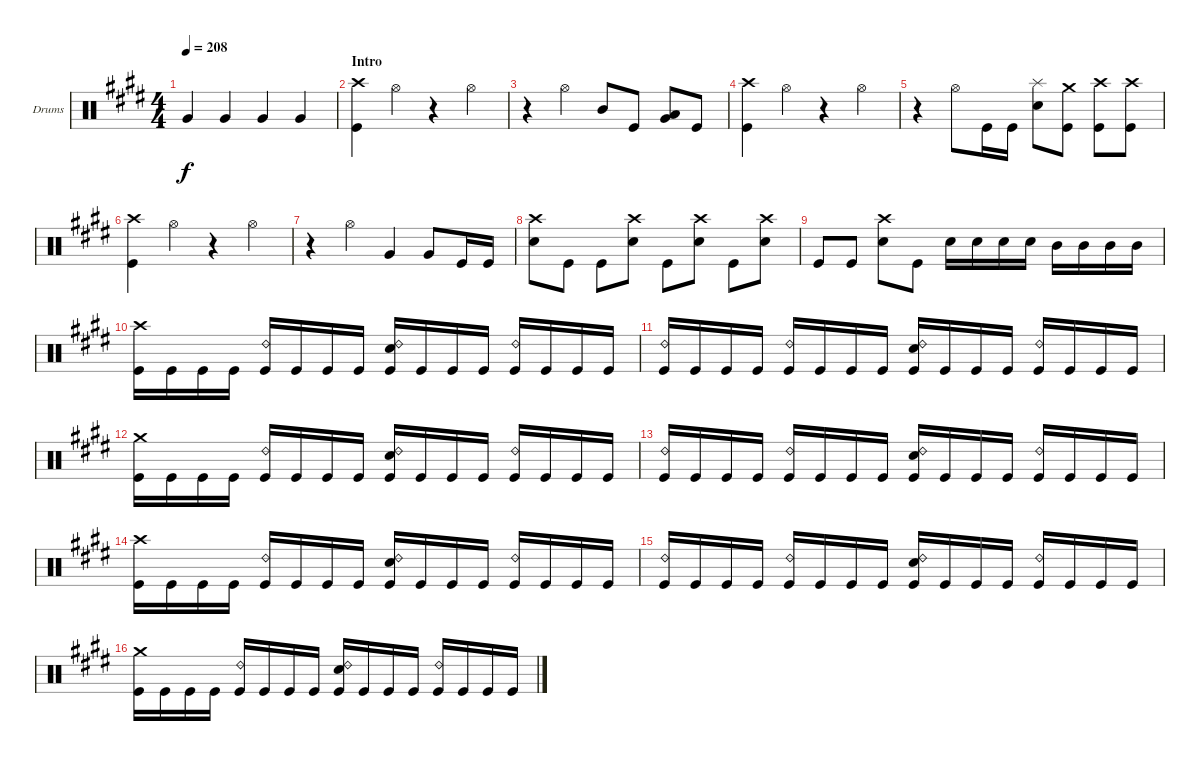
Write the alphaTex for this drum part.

\defaultSystemsLayout 4
\bracketExtendMode groupsimilarinstruments
\firstSystemTrackNameOrientation horizontal
\otherSystemsTrackNameOrientation horizontal
\track ("Corey Friedlander - Drums" "Drums") {instrument percussion}
\staff {score}
\articulation defaults
\ts (4 4)
\tempo 208
\clef neutral
\scale
0.472222
\ks c#minor "Very Low Tom (hit)".4{dy f} "Very Low Tom (hit)".4 "Very Low Tom (hit)".4 "Very Low Tom (hit)".4
|
\section ("" "Intro")
\scale
0.263889 ("Kick (hit)" "Crash high (hit)").4 "Hi-Hat (open)".4 r.4 "Hi-Hat (open)".4 |
\scale
0.263889 r.4 "Hi-Hat (open)".4 "Mid Tom (hit)".8 "Kick (hit)".8 ("Very Low Tom (hit)" "Low Tom (hit)").8 "Kick (hit)".8 |
("Kick (hit)" "Crash high (hit)").4 "Hi-Hat (open)".4 r.4 "Hi-Hat (open)".4 |
r.4 "Hi-Hat (open)".8 "Kick (hit)".16 "Kick (hit)".16 ("Snare (hit) 2" "Splash (hit)").8 ("Kick (hit)" "Crash medium (hit)").8 ("Kick (hit)" "Crash high (hit)").8 ("Kick (hit)" "Crash high (hit)").8 |
("Kick (hit)" "Crash high (hit)").4 "Hi-Hat (open)".4 r.4 "Hi-Hat (open)".4 |
r.4 "Hi-Hat (open)".4 "Very Low Tom (hit)".4 "Very Low Tom (hit)".8 "Kick (hit)".16 "Kick (hit)".16 |
("Snare (hit) 2" "Crash high (hit)").8 "Kick (hit)".8 "Kick (hit)".8 ("Snare (hit) 2" "Crash high (hit)").8 "Kick (hit)".8 ("Snare (hit) 2" "Crash high (hit)").8 "Kick (hit)".8 ("Snare (hit) 2" "Crash high (hit)").8 |
"Kick (hit)".8 "Kick (hit)".8 ("Snare (hit) 2" "Crash high (hit)").8 "Kick (hit)".8 "Snare (hit) 2".16 "Snare (hit) 2".16 "Snare (hit) 2".16 "Snare (hit) 2".16 "Mid Tom (hit)".16 "Mid Tom (hit)".16 "Mid Tom (hit)".16 "Mid Tom (hit)".16 |
("Kick (hit)" "Crash high (hit)").16 "Kick (hit)".16 "Kick (hit)".16 "Kick (hit)".16 ("Kick (hit)" "Ride (bell) 2").16 "Kick (hit)".16 "Kick (hit)".16 "Kick (hit)".16 ("Kick (hit)" "Ride (bell) 2" "Snare (hit) 2").16 "Kick (hit)".16 "Kick (hit)".16 "Kick (hit)".16 ("Kick (hit)" "Ride (bell) 2").16 "Kick (hit)".16 "Kick (hit)".16 "Kick (hit)".16 |
("Kick (hit)" "Ride (bell) 2").16 "Kick (hit)".16 "Kick (hit)".16 "Kick (hit)".16 ("Kick (hit)" "Ride (bell) 2").16 "Kick (hit)".16 "Kick (hit)".16 "Kick (hit)".16 ("Kick (hit)" "Ride (bell) 2" "Snare (hit) 2").16 "Kick (hit)".16 "Kick (hit)".16 "Kick (hit)".16 ("Kick (hit)" "Ride (bell) 2").16 "Kick (hit)".16 "Kick (hit)".16 "Kick (hit)".16 |
("Kick (hit)" "Crash medium (hit)").16 "Kick (hit)".16 "Kick (hit)".16 "Kick (hit)".16 ("Kick (hit)" "Ride (bell) 2").16 "Kick (hit)".16 "Kick (hit)".16 "Kick (hit)".16 ("Kick (hit)" "Ride (bell) 2" "Snare (hit) 2").16 "Kick (hit)".16 "Kick (hit)".16 "Kick (hit)".16 ("Kick (hit)" "Ride (bell) 2").16 "Kick (hit)".16 "Kick (hit)".16 "Kick (hit)".16 |
("Kick (hit)" "Ride (bell) 2").16 "Kick (hit)".16 "Kick (hit)".16 "Kick (hit)".16 ("Kick (hit)" "Ride (bell) 2").16 "Kick (hit)".16 "Kick (hit)".16 "Kick (hit)".16 ("Kick (hit)" "Ride (bell) 2" "Snare (hit) 2").16 "Kick (hit)".16 "Kick (hit)".16 "Kick (hit)".16 ("Kick (hit)" "Ride (bell) 2").16 "Kick (hit)".16 "Kick (hit)".16 "Kick (hit)".16 |
("Kick (hit)" "Crash high (hit)").16 "Kick (hit)".16 "Kick (hit)".16 "Kick (hit)".16 ("Kick (hit)" "Ride (bell) 2").16 "Kick (hit)".16 "Kick (hit)".16 "Kick (hit)".16 ("Kick (hit)" "Ride (bell) 2" "Snare (hit) 2").16 "Kick (hit)".16 "Kick (hit)".16 "Kick (hit)".16 ("Kick (hit)" "Ride (bell) 2").16 "Kick (hit)".16 "Kick (hit)".16 "Kick (hit)".16 |
("Kick (hit)" "Ride (bell) 2").16 "Kick (hit)".16 "Kick (hit)".16 "Kick (hit)".16 ("Kick (hit)" "Ride (bell) 2").16 "Kick (hit)".16 "Kick (hit)".16 "Kick (hit)".16 ("Kick (hit)" "Ride (bell) 2" "Snare (hit) 2").16 "Kick (hit)".16 "Kick (hit)".16 "Kick (hit)".16 ("Kick (hit)" "Ride (bell) 2").16 "Kick (hit)".16 "Kick (hit)".16 "Kick (hit)".16 |
("Kick (hit)" "Crash medium (hit)").16 "Kick (hit)".16 "Kick (hit)".16 "Kick (hit)".16 ("Kick (hit)" "Ride (bell) 2").16 "Kick (hit)".16 "Kick (hit)".16 "Kick (hit)".16 ("Kick (hit)" "Ride (bell) 2" "Snare (hit) 2").16 "Kick (hit)".16 "Kick (hit)".16 "Kick (hit)".16 ("Kick (hit)" "Ride (bell) 2").16 "Kick (hit)".16 "Kick (hit)".16 "Kick (hit)".16
